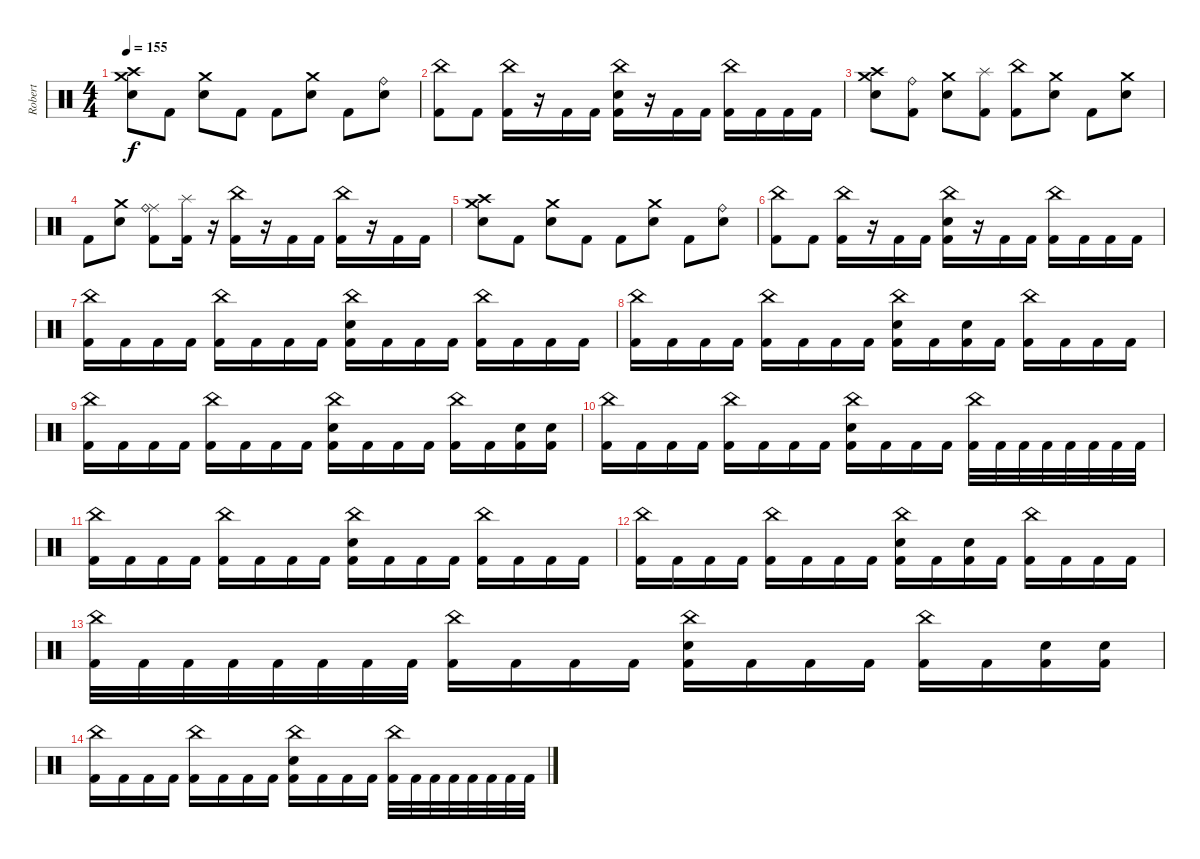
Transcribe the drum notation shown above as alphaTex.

\track ("Robert" "Robert") {instrument percussion}
\staff {score}
\articulation defaults
\ts (4 4)
\tempo 155
\clef neutral
\ks c
("Crash high (hit)" "Crash medium (hit)" "Electric Snare (hit)").8{dy f} "Kick (hit) 2".8 ("Crash medium (hit)" "Electric Snare (hit)").8 "Kick (hit) 2".8 "Kick (hit) 2".8 ("Crash medium (hit)" "Electric Snare (hit)").8 "Kick (hit) 2".8 ("Ride (bell)" "Electric Snare (hit)").8 |
("Kick (hit) 2" "China (hit)").8 "Kick (hit) 2".8 ("Kick (hit) 2" "China (hit)").16 r.16 "Kick (hit) 2".16 "Kick (hit) 2".16 ("Kick (hit) 2" "Electric Snare (hit)" "China (hit)").16 r.16 "Kick (hit) 2".16 "Kick (hit) 2".16 ("Kick (hit) 2" "China (hit)").16 "Kick (hit) 2".16 "Kick (hit) 2".16 "Kick (hit) 2".16 |
("Crash high (hit)" "Crash medium (hit)" "Electric Snare (hit)").8 ("Kick (hit) 2" "Ride (bell)").8 ("Crash medium (hit)" "Electric Snare (hit)").8 ("Splash (hit)" "Kick (hit) 2").8 ("China (hit)" "Kick (hit) 2").8 ("Crash medium (hit)" "Electric Snare (hit)").8 "Kick (hit) 2".8 ("Crash medium (hit)" "Electric Snare (hit)").8 |
"Kick (hit) 2".8 ("Crash medium (hit)" "Electric Snare (hit)").8 ("Ride (middle)" "Ride (bell)" "Kick (hit) 2").8 ("Splash (hit)" "Kick (hit) 2").16 r.16 ("China (hit)" "Kick (hit) 2").16 r.16 "Kick (hit) 2".16 "Kick (hit) 2".16 ("China (hit)" "Kick (hit) 2").16 r.16 "Kick (hit) 2".16 "Kick (hit) 2".16 |
("Crash high (hit)" "Crash medium (hit)" "Electric Snare (hit)").8 "Kick (hit) 2".8 ("Crash medium (hit)" "Electric Snare (hit)").8 "Kick (hit) 2".8 "Kick (hit) 2".8 ("Crash medium (hit)" "Electric Snare (hit)").8 "Kick (hit) 2".8 ("Ride (bell)" "Electric Snare (hit)").8 |
("Kick (hit) 2" "China (hit)").8 "Kick (hit) 2".8 ("Kick (hit) 2" "China (hit)").16 r.16 "Kick (hit) 2".16 "Kick (hit) 2".16 ("Kick (hit) 2" "Electric Snare (hit)" "China (hit)").16 r.16 "Kick (hit) 2".16 "Kick (hit) 2".16 ("Kick (hit) 2" "China (hit)").16 "Kick (hit) 2".16 "Kick (hit) 2".16 "Kick (hit) 2".16 |
("China (hit)" "Kick (hit) 2").16 "Kick (hit) 2".16 "Kick (hit) 2".16 "Kick (hit) 2".16 ("China (hit)" "Kick (hit) 2").16 "Kick (hit) 2".16 "Kick (hit) 2".16 "Kick (hit) 2".16 ("China (hit)" "Electric Snare (hit)" "Kick (hit) 2").16 "Kick (hit) 2".16 "Kick (hit) 2".16 "Kick (hit) 2".16 ("China (hit)" "Kick (hit) 2").16 "Kick (hit) 2".16 "Kick (hit) 2".16 "Kick (hit) 2".16 |
("China (hit)" "Kick (hit) 2").16 "Kick (hit) 2".16 "Kick (hit) 2".16 "Kick (hit) 2".16 ("China (hit)" "Kick (hit) 2").16 "Kick (hit) 2".16 "Kick (hit) 2".16 "Kick (hit) 2".16 ("China (hit)" "Electric Snare (hit)" "Kick (hit) 2").16 "Kick (hit) 2".16 ("Electric Snare (hit)" "Kick (hit) 2").16 "Kick (hit) 2".16 ("China (hit)" "Kick (hit) 2").16 "Kick (hit) 2".16 "Kick (hit) 2".16 "Kick (hit) 2".16 |
("China (hit)" "Kick (hit) 2").16 "Kick (hit) 2".16 "Kick (hit) 2".16 "Kick (hit) 2".16 ("China (hit)" "Kick (hit) 2").16 "Kick (hit) 2".16 "Kick (hit) 2".16 "Kick (hit) 2".16 ("China (hit)" "Electric Snare (hit)" "Kick (hit) 2").16 "Kick (hit) 2".16 "Kick (hit) 2".16 "Kick (hit) 2".16 ("China (hit)" "Kick (hit) 2").16 "Kick (hit) 2".16 ("Electric Snare (hit)" "Kick (hit) 2").16 ("Electric Snare (hit)" "Kick (hit) 2").16 |
("China (hit)" "Kick (hit) 2").16 "Kick (hit) 2".16 "Kick (hit) 2".16 "Kick (hit) 2".16 ("China (hit)" "Kick (hit) 2").16 "Kick (hit) 2".16 "Kick (hit) 2".16 "Kick (hit) 2".16 ("China (hit)" "Electric Snare (hit)" "Kick (hit) 2").16 "Kick (hit) 2".16 "Kick (hit) 2".16 "Kick (hit) 2".16 ("China (hit)" "Kick (hit) 2").32 "Kick (hit) 2".32 "Kick (hit) 2".32 "Kick (hit) 2".32 "Kick (hit) 2".32 "Kick (hit) 2".32 "Kick (hit) 2".32 "Kick (hit) 2".32 |
("China (hit)" "Kick (hit) 2").16 "Kick (hit) 2".16 "Kick (hit) 2".16 "Kick (hit) 2".16 ("China (hit)" "Kick (hit) 2").16 "Kick (hit) 2".16 "Kick (hit) 2".16 "Kick (hit) 2".16 ("China (hit)" "Electric Snare (hit)" "Kick (hit) 2").16 "Kick (hit) 2".16 "Kick (hit) 2".16 "Kick (hit) 2".16 ("China (hit)" "Kick (hit) 2").16 "Kick (hit) 2".16 "Kick (hit) 2".16 "Kick (hit) 2".16 |
("China (hit)" "Kick (hit) 2").16 "Kick (hit) 2".16 "Kick (hit) 2".16 "Kick (hit) 2".16 ("China (hit)" "Kick (hit) 2").16 "Kick (hit) 2".16 "Kick (hit) 2".16 "Kick (hit) 2".16 ("China (hit)" "Electric Snare (hit)" "Kick (hit) 2").16 "Kick (hit) 2".16 ("Electric Snare (hit)" "Kick (hit) 2").16 "Kick (hit) 2".16 ("China (hit)" "Kick (hit) 2").16 "Kick (hit) 2".16 "Kick (hit) 2".16 "Kick (hit) 2".16 |
("China (hit)" "Kick (hit) 2").32 "Kick (hit) 2".32 "Kick (hit) 2".32 "Kick (hit) 2".32 "Kick (hit) 2".32 "Kick (hit) 2".32 "Kick (hit) 2".32 "Kick (hit) 2".32 ("China (hit)" "Kick (hit) 2").16 "Kick (hit) 2".16 "Kick (hit) 2".16 "Kick (hit) 2".16 ("China (hit)" "Electric Snare (hit)" "Kick (hit) 2").16 "Kick (hit) 2".16 "Kick (hit) 2".16 "Kick (hit) 2".16 ("China (hit)" "Kick (hit) 2").16 "Kick (hit) 2".16 ("Electric Snare (hit)" "Kick (hit) 2").16 ("Electric Snare (hit)" "Kick (hit) 2").16 |
("China (hit)" "Kick (hit) 2").16 "Kick (hit) 2".16 "Kick (hit) 2".16 "Kick (hit) 2".16 ("China (hit)" "Kick (hit) 2").16 "Kick (hit) 2".16 "Kick (hit) 2".16 "Kick (hit) 2".16 ("China (hit)" "Electric Snare (hit)" "Kick (hit) 2").16 "Kick (hit) 2".16 "Kick (hit) 2".16 "Kick (hit) 2".16 ("China (hit)" "Kick (hit) 2").32 "Kick (hit) 2".32 "Kick (hit) 2".32 "Kick (hit) 2".32 "Kick (hit) 2".32 "Kick (hit) 2".32 "Kick (hit) 2".32 "Kick (hit) 2".32
